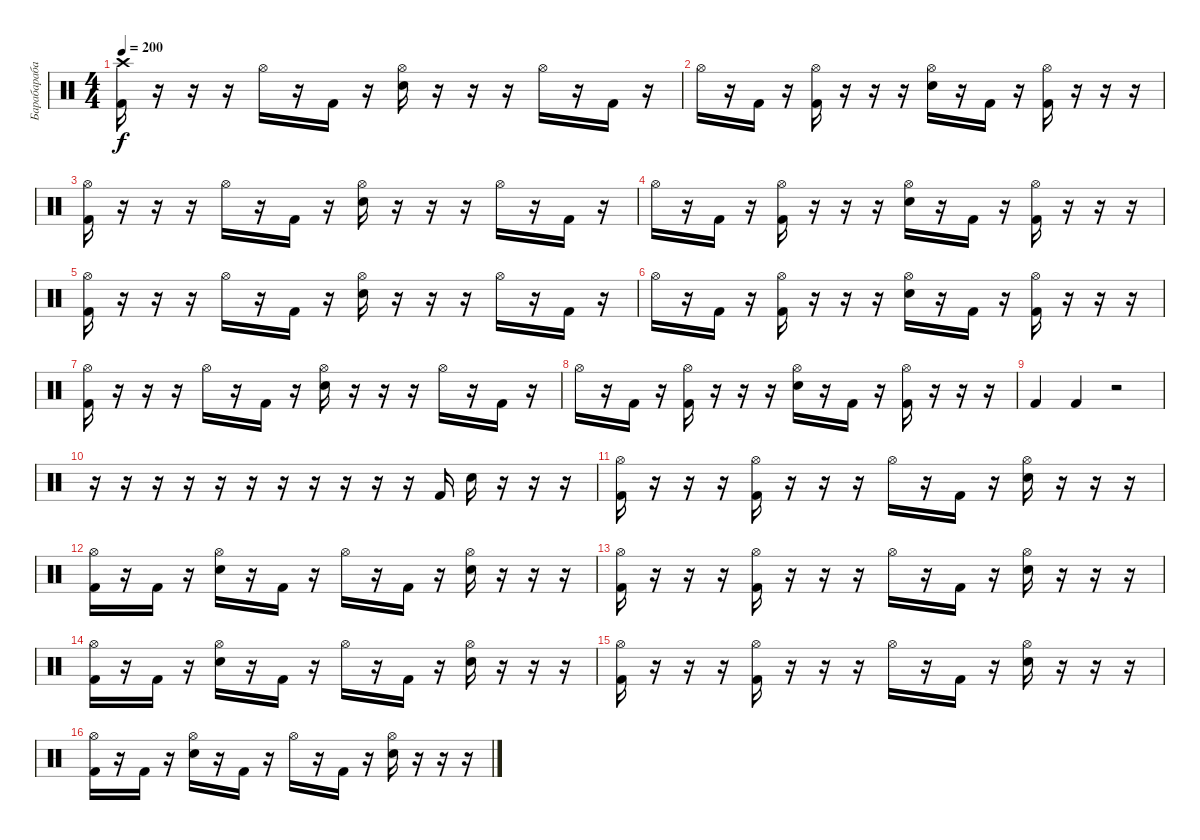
\track ("Барабарабаны" "Барабараба") {instrument percussion}
\staff {score}
\articulation defaults
\ts (4 4)
\tempo 200
\clef neutral
\ks c
("Crash high (hit)" "Kick (hit) 2").16{dy f} r.16 r.16 r.16 "Hi-Hat (open)".16 r.16 "Kick (hit) 2".16 r.16 ("Hi-Hat (open)" "Electric Snare (hit)").16 r.16 r.16 r.16 "Hi-Hat (open)".16 r.16 "Kick (hit) 2".16 r.16 |
"Hi-Hat (open)".16 r.16 "Kick (hit) 2".16 r.16 ("Hi-Hat (open)" "Kick (hit) 2").16 r.16 r.16 r.16 ("Hi-Hat (open)" "Electric Snare (hit)").16 r.16 "Kick (hit) 2".16 r.16 ("Hi-Hat (open)" "Kick (hit) 2").16 r.16 r.16 r.16 |
("Hi-Hat (open)" "Kick (hit) 2").16 r.16 r.16 r.16 "Hi-Hat (open)".16 r.16 "Kick (hit) 2".16 r.16 ("Hi-Hat (open)" "Electric Snare (hit)").16 r.16 r.16 r.16 "Hi-Hat (open)".16 r.16 "Kick (hit) 2".16 r.16 |
"Hi-Hat (open)".16 r.16 "Kick (hit) 2".16 r.16 ("Hi-Hat (open)" "Kick (hit) 2").16 r.16 r.16 r.16 ("Hi-Hat (open)" "Electric Snare (hit)").16 r.16 "Kick (hit) 2".16 r.16 ("Hi-Hat (open)" "Kick (hit) 2").16 r.16 r.16 r.16 |
("Hi-Hat (open)" "Kick (hit) 2").16 r.16 r.16 r.16 "Hi-Hat (open)".16 r.16 "Kick (hit) 2".16 r.16 ("Hi-Hat (open)" "Electric Snare (hit)").16 r.16 r.16 r.16 "Hi-Hat (open)".16 r.16 "Kick (hit) 2".16 r.16 |
"Hi-Hat (open)".16 r.16 "Kick (hit) 2".16 r.16 ("Hi-Hat (open)" "Kick (hit) 2").16 r.16 r.16 r.16 ("Hi-Hat (open)" "Electric Snare (hit)").16 r.16 "Kick (hit) 2".16 r.16 ("Hi-Hat (open)" "Kick (hit) 2").16 r.16 r.16 r.16 |
("Hi-Hat (open)" "Kick (hit) 2").16 r.16 r.16 r.16 "Hi-Hat (open)".16 r.16 "Kick (hit) 2".16 r.16 ("Hi-Hat (open)" "Electric Snare (hit)").16 r.16 r.16 r.16 "Hi-Hat (open)".16 r.16 "Kick (hit) 2".16 r.16 |
"Hi-Hat (open)".16 r.16 "Kick (hit) 2".16 r.16 ("Hi-Hat (open)" "Kick (hit) 2").16 r.16 r.16 r.16 ("Hi-Hat (open)" "Electric Snare (hit)").16 r.16 "Kick (hit) 2".16 r.16 ("Hi-Hat (open)" "Kick (hit) 2").16 r.16 r.16 r.16 |
"Kick (hit) 2".4 "Kick (hit) 2".4 r.2 |
r.16 r.16 r.16 r.16 r.16 r.16 r.16 r.16 r.16 r.16 r.16 "Kick (hit) 2".16 "Electric Snare (hit)".16 r.16 r.16 r.16 |
("Hi-Hat (open)" "Kick (hit) 2").16 r.16 r.16 r.16 ("Hi-Hat (open)" "Kick (hit) 2").16 r.16 r.16 r.16 "Hi-Hat (open)".16 r.16 "Kick (hit) 2".16 r.16 ("Hi-Hat (open)" "Electric Snare (hit)").16 r.16 r.16 r.16 |
("Hi-Hat (open)" "Kick (hit) 2").16 r.16 "Kick (hit) 2".16 r.16 ("Hi-Hat (open)" "Electric Snare (hit)").16 r.16 "Kick (hit) 2".16 r.16 "Hi-Hat (open)".16 r.16 "Kick (hit) 2".16 r.16 ("Hi-Hat (open)" "Electric Snare (hit)").16 r.16 r.16 r.16 |
("Hi-Hat (open)" "Kick (hit) 2").16 r.16 r.16 r.16 ("Hi-Hat (open)" "Kick (hit) 2").16 r.16 r.16 r.16 "Hi-Hat (open)".16 r.16 "Kick (hit) 2".16 r.16 ("Hi-Hat (open)" "Electric Snare (hit)").16 r.16 r.16 r.16 |
("Hi-Hat (open)" "Kick (hit) 2").16 r.16 "Kick (hit) 2".16 r.16 ("Hi-Hat (open)" "Electric Snare (hit)").16 r.16 "Kick (hit) 2".16 r.16 "Hi-Hat (open)".16 r.16 "Kick (hit) 2".16 r.16 ("Hi-Hat (open)" "Electric Snare (hit)").16 r.16 r.16 r.16 |
("Hi-Hat (open)" "Kick (hit) 2").16 r.16 r.16 r.16 ("Hi-Hat (open)" "Kick (hit) 2").16 r.16 r.16 r.16 "Hi-Hat (open)".16 r.16 "Kick (hit) 2".16 r.16 ("Hi-Hat (open)" "Electric Snare (hit)").16 r.16 r.16 r.16 |
("Hi-Hat (open)" "Kick (hit) 2").16 r.16 "Kick (hit) 2".16 r.16 ("Hi-Hat (open)" "Electric Snare (hit)").16 r.16 "Kick (hit) 2".16 r.16 "Hi-Hat (open)".16 r.16 "Kick (hit) 2".16 r.16 ("Hi-Hat (open)" "Electric Snare (hit)").16 r.16 r.16 r.16
